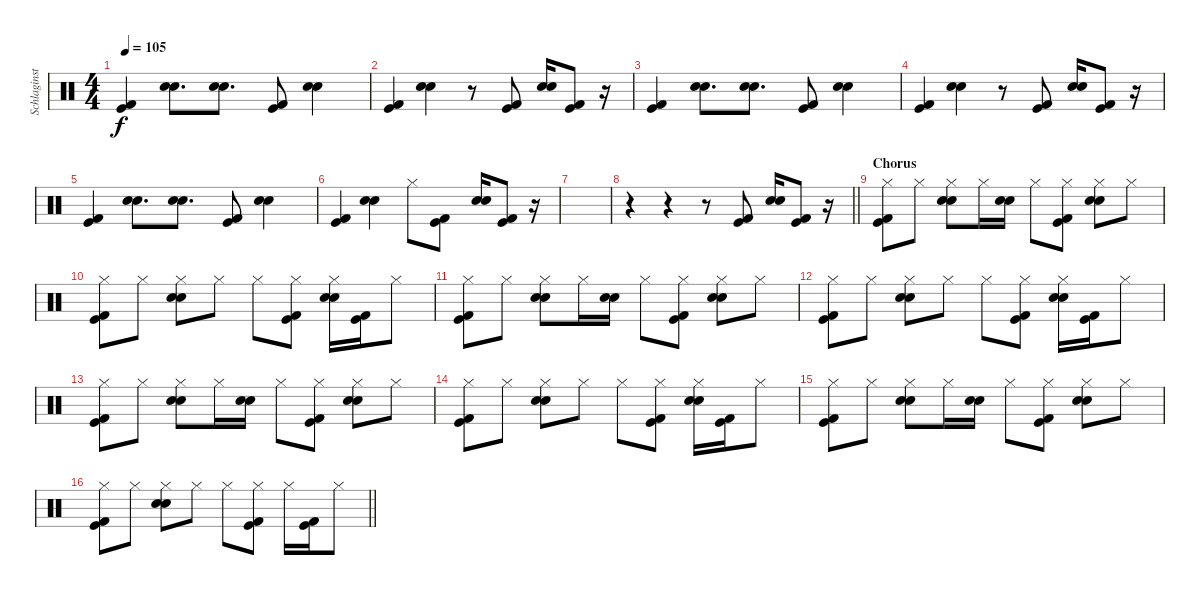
\track ("Schlaginstrumente - Auswahl" "Schlaginst") {instrument percussion}
\staff {score}
\articulation defaults
\ts (4 4)
\tempo 105
\clef neutral
\ks c
("Kick (hit)" "Kick (hit) 2").4{dy f} ("Electric Snare (hit)" "Snare (hit) 2").8{d} ("Electric Snare (hit)" "Snare (hit) 2").8{d} ("Kick (hit) 2" "Kick (hit)").8 ("Snare (hit) 2" "Electric Snare (hit)").4 |
("Kick (hit)" "Kick (hit) 2").4 ("Snare (hit) 2" "Electric Snare (hit)").4 r.8 ("Kick (hit) 2" "Kick (hit)").8 ("Snare (hit) 2" "Electric Snare (hit)").16 ("Kick (hit)" "Kick (hit) 2").8 r.16 |
("Kick (hit)" "Kick (hit) 2").4 ("Electric Snare (hit)" "Snare (hit) 2").8{d} ("Electric Snare (hit)" "Snare (hit) 2").8{d} ("Kick (hit) 2" "Kick (hit)").8 ("Snare (hit) 2" "Electric Snare (hit)").4 |
("Kick (hit)" "Kick (hit) 2").4 ("Snare (hit) 2" "Electric Snare (hit)").4 r.8 ("Kick (hit) 2" "Kick (hit)").8 ("Snare (hit) 2" "Electric Snare (hit)").16 ("Kick (hit)" "Kick (hit) 2").8 r.16 |
("Kick (hit)" "Kick (hit) 2").4 ("Electric Snare (hit)" "Snare (hit) 2").8{d} ("Electric Snare (hit)" "Snare (hit) 2").8{d} ("Kick (hit) 2" "Kick (hit)").8 ("Snare (hit) 2" "Electric Snare (hit)").4 |
("Kick (hit)" "Kick (hit) 2").4 ("Snare (hit) 2" "Electric Snare (hit)").4 "Hi-Hat (closed)".8 ("Kick (hit) 2" "Kick (hit)").8 ("Snare (hit) 2" "Electric Snare (hit)").16 ("Kick (hit)" "Kick (hit) 2").8 r.16 |
|
\barLineRight lightlight
r.4 r.4 r.8 ("Kick (hit) 2" "Kick (hit)").8 ("Snare (hit) 2" "Electric Snare (hit)").16 ("Kick (hit)" "Kick (hit) 2").8 r.16 |
\section ("" "Chorus")
("Kick (hit)" "Kick (hit) 2" "Hi-Hat (closed)").8 "Hi-Hat (closed)".8 ("Electric Snare (hit)" "Snare (hit) 2" "Hi-Hat (closed)").8 "Hi-Hat (closed)".16 ("Electric Snare (hit)" "Snare (hit) 2").16 "Hi-Hat (closed)".8 ("Kick (hit) 2" "Hi-Hat (closed)" "Kick (hit)").8 ("Snare (hit) 2" "Electric Snare (hit)" "Hi-Hat (closed)").8 "Hi-Hat (closed)".8 |
("Kick (hit)" "Kick (hit) 2" "Hi-Hat (closed)").8 "Hi-Hat (closed)".8 ("Snare (hit) 2" "Electric Snare (hit)" "Hi-Hat (closed)").8 "Hi-Hat (closed)".8 "Hi-Hat (closed)".8 ("Kick (hit) 2" "Kick (hit)" "Hi-Hat (closed)").8 ("Snare (hit) 2" "Electric Snare (hit)" "Hi-Hat (closed)").16 ("Kick (hit)" "Kick (hit) 2").16 "Hi-Hat (closed)".8 |
("Kick (hit)" "Kick (hit) 2" "Hi-Hat (closed)").8 "Hi-Hat (closed)".8 ("Electric Snare (hit)" "Snare (hit) 2" "Hi-Hat (closed)").8 "Hi-Hat (closed)".16 ("Electric Snare (hit)" "Snare (hit) 2").16 "Hi-Hat (closed)".8 ("Kick (hit) 2" "Hi-Hat (closed)" "Kick (hit)").8 ("Snare (hit) 2" "Electric Snare (hit)" "Hi-Hat (closed)").8 "Hi-Hat (closed)".8 |
("Kick (hit)" "Kick (hit) 2" "Hi-Hat (closed)").8 "Hi-Hat (closed)".8 ("Snare (hit) 2" "Electric Snare (hit)" "Hi-Hat (closed)").8 "Hi-Hat (closed)".8 "Hi-Hat (closed)".8 ("Kick (hit) 2" "Kick (hit)" "Hi-Hat (closed)").8 ("Snare (hit) 2" "Electric Snare (hit)" "Hi-Hat (closed)").16 ("Kick (hit)" "Kick (hit) 2").16 "Hi-Hat (closed)".8 |
("Kick (hit)" "Kick (hit) 2" "Hi-Hat (closed)").8 "Hi-Hat (closed)".8 ("Electric Snare (hit)" "Snare (hit) 2" "Hi-Hat (closed)").8 "Hi-Hat (closed)".16 ("Electric Snare (hit)" "Snare (hit) 2").16 "Hi-Hat (closed)".8 ("Kick (hit) 2" "Hi-Hat (closed)" "Kick (hit)").8 ("Snare (hit) 2" "Electric Snare (hit)" "Hi-Hat (closed)").8 "Hi-Hat (closed)".8 |
("Kick (hit)" "Kick (hit) 2" "Hi-Hat (closed)").8 "Hi-Hat (closed)".8 ("Snare (hit) 2" "Electric Snare (hit)" "Hi-Hat (closed)").8 "Hi-Hat (closed)".8 "Hi-Hat (closed)".8 ("Kick (hit) 2" "Kick (hit)" "Hi-Hat (closed)").8 ("Snare (hit) 2" "Electric Snare (hit)" "Hi-Hat (closed)").16 ("Kick (hit)" "Kick (hit) 2").16 "Hi-Hat (closed)".8 |
("Kick (hit)" "Kick (hit) 2" "Hi-Hat (closed)").8 "Hi-Hat (closed)".8 ("Electric Snare (hit)" "Snare (hit) 2" "Hi-Hat (closed)").8 "Hi-Hat (closed)".16 ("Electric Snare (hit)" "Snare (hit) 2").16 "Hi-Hat (closed)".8 ("Kick (hit) 2" "Hi-Hat (closed)" "Kick (hit)").8 ("Snare (hit) 2" "Electric Snare (hit)" "Hi-Hat (closed)").8 "Hi-Hat (closed)".8 |
\barLineRight lightlight
("Kick (hit)" "Kick (hit) 2" "Hi-Hat (closed)").8 "Hi-Hat (closed)".8 ("Snare (hit) 2" "Electric Snare (hit)" "Hi-Hat (closed)").8 "Hi-Hat (closed)".8 "Hi-Hat (closed)".8 ("Kick (hit) 2" "Kick (hit)" "Hi-Hat (closed)").8 "Hi-Hat (closed)".16 ("Kick (hit)" "Kick (hit) 2").16 "Hi-Hat (closed)".8
